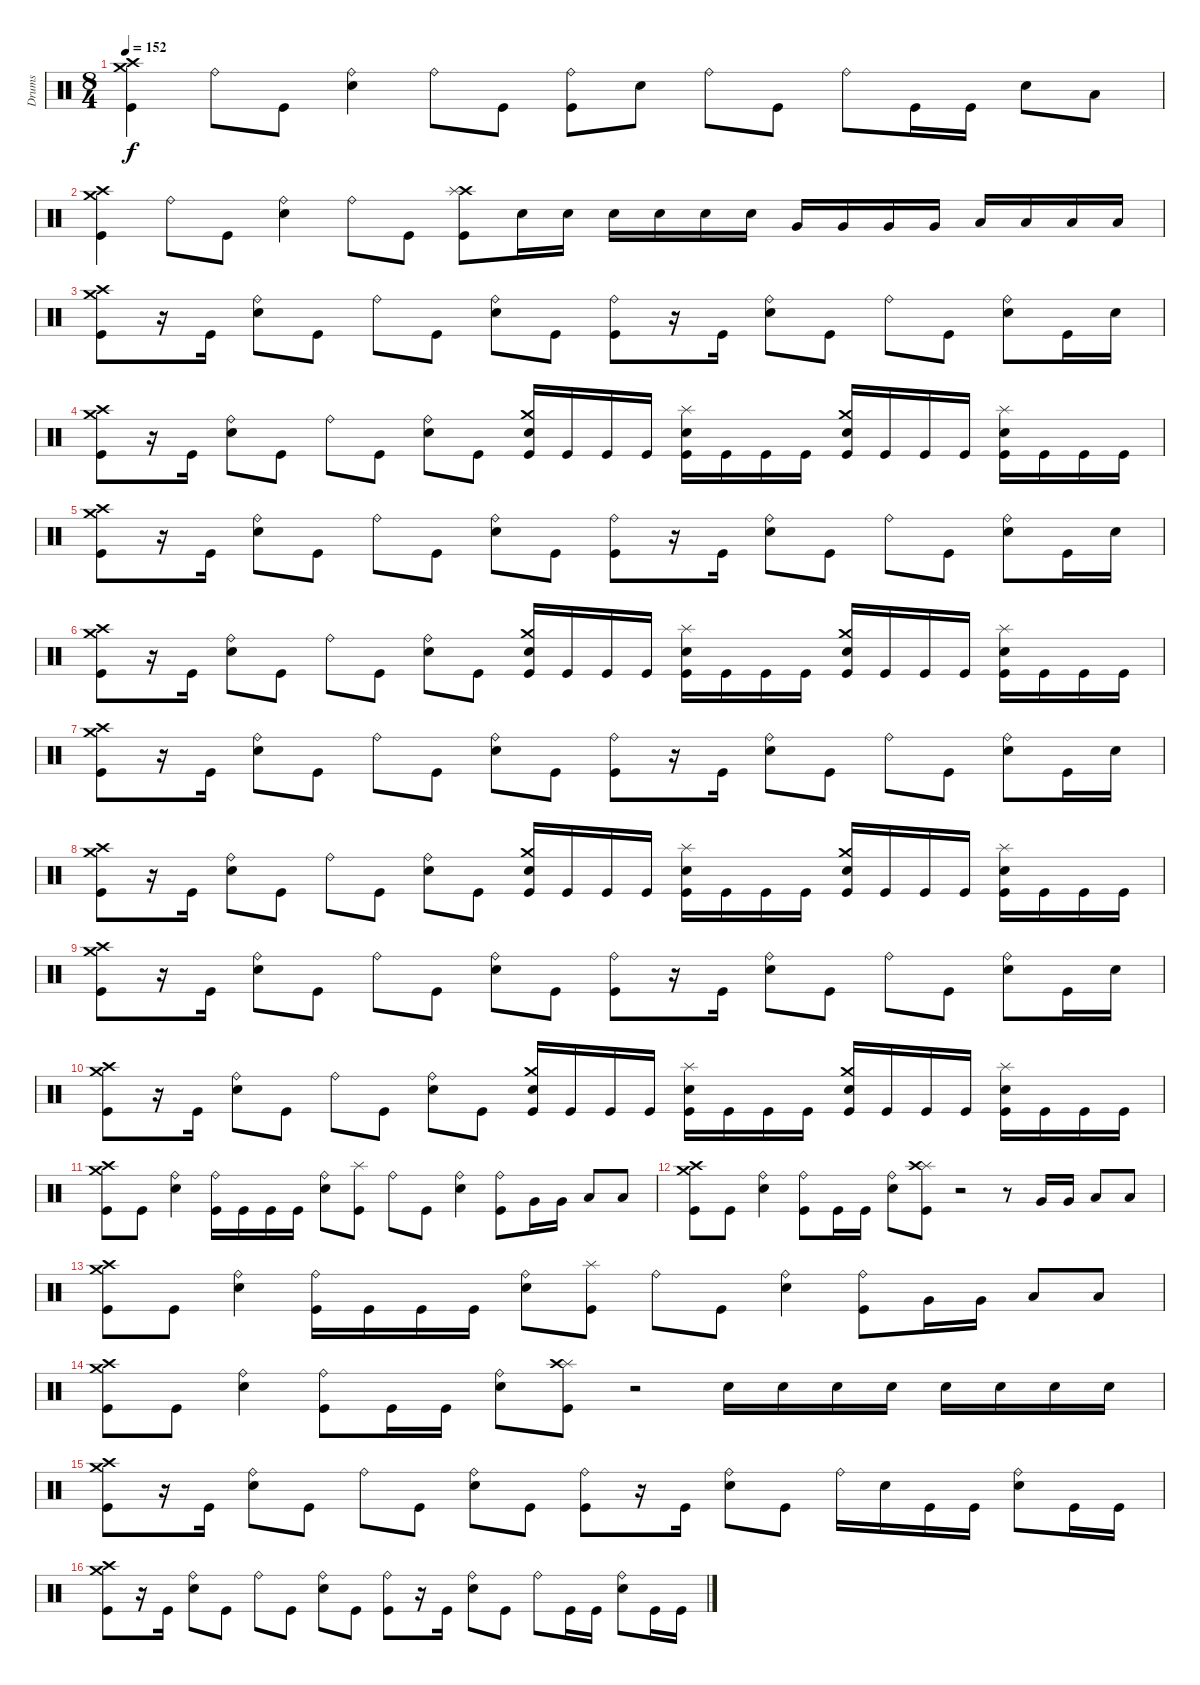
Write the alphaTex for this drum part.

\track ("Drums" "Drums") {instrument percussion}
\staff {score}
\articulation defaults
\ts (8 4)
\tempo 152
\clef neutral
\ks c
("Kick (hit)" "Crash high (hit)" "Crash medium (hit)").4{dy f} "Ride (bell)".8 "Kick (hit)".8 ("Electric Snare (hit)" "Ride (bell)").4 "Ride (bell)".8 "Kick (hit)".8 ("Kick (hit)" "Ride (bell)").8 "Electric Snare (hit)".8 "Ride (bell)".8 "Kick (hit)".8 "Ride (bell)".8 "Kick (hit)".16 "Kick (hit)".16 "Electric Snare (hit)".8 "Low Floor Tom (hit)".8 |
("Kick (hit)" "Crash high (hit)" "Crash medium (hit)").4 "Ride (bell)".8 "Kick (hit)".8 ("Electric Snare (hit)" "Ride (bell)").4 "Ride (bell)".8 "Kick (hit)".8 ("Kick (hit)" "Crash high (hit)" "Splash (hit)").8 "Electric Snare (hit)".16 "Electric Snare (hit)".16 "Electric Snare (hit)".16 "Electric Snare (hit)".16 "Electric Snare (hit)".16 "Electric Snare (hit)".16 "Very Low Tom (hit)".16 "Very Low Tom (hit)".16 "Very Low Tom (hit)".16 "Very Low Tom (hit)".16 "Low Floor Tom (hit)".16 "Low Floor Tom (hit)".16 "Low Floor Tom (hit)".16 "Low Floor Tom (hit)".16 |
("Kick (hit)" "Crash high (hit)" "Crash medium (hit)").8 r.16 "Kick (hit)".16 ("Electric Snare (hit)" "Ride (bell)").8 "Kick (hit)".8 "Ride (bell)".8 "Kick (hit)".8 ("Electric Snare (hit)" "Ride (bell)").8 "Kick (hit)".8 ("Kick (hit)" "Ride (bell)").8 r.16 "Kick (hit)".16 ("Electric Snare (hit)" "Ride (bell)").8 "Kick (hit)".8 "Ride (bell)".8 "Kick (hit)".8 ("Electric Snare (hit)" "Ride (bell)").8 "Kick (hit)".16 "Electric Snare (hit)".16 |
("Kick (hit)" "Crash high (hit)" "Crash medium (hit)").8 r.16 "Kick (hit)".16 ("Electric Snare (hit)" "Ride (bell)").8 "Kick (hit)".8 "Ride (bell)".8 "Kick (hit)".8 ("Electric Snare (hit)" "Ride (bell)").8 "Kick (hit)".8 ("Kick (hit)" "Crash medium (hit)" "Electric Snare (hit)").16 "Kick (hit)".16 "Kick (hit)".16 "Kick (hit)".16 ("Kick (hit)" "Splash (hit)" "Electric Snare (hit)").16 "Kick (hit)".16 "Kick (hit)".16 "Kick (hit)".16 ("Kick (hit)" "Crash medium (hit)" "Electric Snare (hit)").16 "Kick (hit)".16 "Kick (hit)".16 "Kick (hit)".16 ("Kick (hit)" "Splash (hit)" "Electric Snare (hit)").16 "Kick (hit)".16 "Kick (hit)".16 "Kick (hit)".16 |
("Kick (hit)" "Crash high (hit)" "Crash medium (hit)").8 r.16 "Kick (hit)".16 ("Electric Snare (hit)" "Ride (bell)").8 "Kick (hit)".8 "Ride (bell)".8 "Kick (hit)".8 ("Electric Snare (hit)" "Ride (bell)").8 "Kick (hit)".8 ("Kick (hit)" "Ride (bell)").8 r.16 "Kick (hit)".16 ("Electric Snare (hit)" "Ride (bell)").8 "Kick (hit)".8 "Ride (bell)".8 "Kick (hit)".8 ("Electric Snare (hit)" "Ride (bell)").8 "Kick (hit)".16 "Electric Snare (hit)".16 |
("Kick (hit)" "Crash high (hit)" "Crash medium (hit)").8 r.16 "Kick (hit)".16 ("Electric Snare (hit)" "Ride (bell)").8 "Kick (hit)".8 "Ride (bell)".8 "Kick (hit)".8 ("Electric Snare (hit)" "Ride (bell)").8 "Kick (hit)".8 ("Kick (hit)" "Crash medium (hit)" "Electric Snare (hit)").16 "Kick (hit)".16 "Kick (hit)".16 "Kick (hit)".16 ("Kick (hit)" "Splash (hit)" "Electric Snare (hit)").16 "Kick (hit)".16 "Kick (hit)".16 "Kick (hit)".16 ("Kick (hit)" "Crash medium (hit)" "Electric Snare (hit)").16 "Kick (hit)".16 "Kick (hit)".16 "Kick (hit)".16 ("Kick (hit)" "Splash (hit)" "Electric Snare (hit)").16 "Kick (hit)".16 "Kick (hit)".16 "Kick (hit)".16 |
("Kick (hit)" "Crash high (hit)" "Crash medium (hit)").8 r.16 "Kick (hit)".16 ("Electric Snare (hit)" "Ride (bell)").8 "Kick (hit)".8 "Ride (bell)".8 "Kick (hit)".8 ("Electric Snare (hit)" "Ride (bell)").8 "Kick (hit)".8 ("Kick (hit)" "Ride (bell)").8 r.16 "Kick (hit)".16 ("Electric Snare (hit)" "Ride (bell)").8 "Kick (hit)".8 "Ride (bell)".8 "Kick (hit)".8 ("Electric Snare (hit)" "Ride (bell)").8 "Kick (hit)".16 "Electric Snare (hit)".16 |
("Kick (hit)" "Crash high (hit)" "Crash medium (hit)").8 r.16 "Kick (hit)".16 ("Electric Snare (hit)" "Ride (bell)").8 "Kick (hit)".8 "Ride (bell)".8 "Kick (hit)".8 ("Electric Snare (hit)" "Ride (bell)").8 "Kick (hit)".8 ("Kick (hit)" "Crash medium (hit)" "Electric Snare (hit)").16 "Kick (hit)".16 "Kick (hit)".16 "Kick (hit)".16 ("Kick (hit)" "Splash (hit)" "Electric Snare (hit)").16 "Kick (hit)".16 "Kick (hit)".16 "Kick (hit)".16 ("Kick (hit)" "Crash medium (hit)" "Electric Snare (hit)").16 "Kick (hit)".16 "Kick (hit)".16 "Kick (hit)".16 ("Kick (hit)" "Splash (hit)" "Electric Snare (hit)").16 "Kick (hit)".16 "Kick (hit)".16 "Kick (hit)".16 |
("Kick (hit)" "Crash high (hit)" "Crash medium (hit)").8 r.16 "Kick (hit)".16 ("Electric Snare (hit)" "Ride (bell)").8 "Kick (hit)".8 "Ride (bell)".8 "Kick (hit)".8 ("Electric Snare (hit)" "Ride (bell)").8 "Kick (hit)".8 ("Kick (hit)" "Ride (bell)").8 r.16 "Kick (hit)".16 ("Electric Snare (hit)" "Ride (bell)").8 "Kick (hit)".8 "Ride (bell)".8 "Kick (hit)".8 ("Electric Snare (hit)" "Ride (bell)").8 "Kick (hit)".16 "Electric Snare (hit)".16 |
("Kick (hit)" "Crash high (hit)" "Crash medium (hit)").8 r.16 "Kick (hit)".16 ("Electric Snare (hit)" "Ride (bell)").8 "Kick (hit)".8 "Ride (bell)".8 "Kick (hit)".8 ("Electric Snare (hit)" "Ride (bell)").8 "Kick (hit)".8 ("Kick (hit)" "Crash medium (hit)" "Electric Snare (hit)").16 "Kick (hit)".16 "Kick (hit)".16 "Kick (hit)".16 ("Kick (hit)" "Splash (hit)" "Electric Snare (hit)").16 "Kick (hit)".16 "Kick (hit)".16 "Kick (hit)".16 ("Kick (hit)" "Crash medium (hit)" "Electric Snare (hit)").16 "Kick (hit)".16 "Kick (hit)".16 "Kick (hit)".16 ("Kick (hit)" "Splash (hit)" "Electric Snare (hit)").16 "Kick (hit)".16 "Kick (hit)".16 "Kick (hit)".16 |
("Kick (hit)" "Crash high (hit)" "Crash medium (hit)").8 "Kick (hit)".8 ("Electric Snare (hit)" "Ride (bell)").4 ("Kick (hit)" "Ride (bell)").16 "Kick (hit)".16 "Kick (hit)".16 "Kick (hit)".16 ("Electric Snare (hit)" "Ride (bell)").8 ("Kick (hit)" "Splash (hit)").8 "Ride (bell)".8 "Kick (hit)".8 ("Electric Snare (hit)" "Ride (bell)").4 ("Kick (hit)" "Ride (bell)").8 "Very Low Tom (hit)".16 "Very Low Tom (hit)".16 "Low Floor Tom (hit)".8 "Low Floor Tom (hit)".8 |
("Kick (hit)" "Crash medium (hit)" "Crash high (hit)").8 "Kick (hit)".8 ("Electric Snare (hit)" "Ride (bell)").4 ("Kick (hit)" "Ride (bell)").8 "Kick (hit)".16 "Kick (hit)".16 ("Electric Snare (hit)" "Ride (bell)").8 ("Kick (hit)" "Splash (hit)" "Crash high (hit)").8 r.2 r.8 "Very Low Tom (hit)".16 "Very Low Tom (hit)".16 "Low Floor Tom (hit)".8 "Low Floor Tom (hit)".8 |
("Kick (hit)" "Crash high (hit)" "Crash medium (hit)").8 "Kick (hit)".8 ("Electric Snare (hit)" "Ride (bell)").4 ("Kick (hit)" "Ride (bell)").16 "Kick (hit)".16 "Kick (hit)".16 "Kick (hit)".16 ("Electric Snare (hit)" "Ride (bell)").8 ("Kick (hit)" "Splash (hit)").8 "Ride (bell)".8 "Kick (hit)".8 ("Electric Snare (hit)" "Ride (bell)").4 ("Kick (hit)" "Ride (bell)").8 "Very Low Tom (hit)".16 "Very Low Tom (hit)".16 "Low Floor Tom (hit)".8 "Low Floor Tom (hit)".8 |
("Kick (hit)" "Crash medium (hit)" "Crash high (hit)").8 "Kick (hit)".8 ("Electric Snare (hit)" "Ride (bell)").4 ("Kick (hit)" "Ride (bell)").8 "Kick (hit)".16 "Kick (hit)".16 ("Electric Snare (hit)" "Ride (bell)").8 ("Kick (hit)" "Splash (hit)" "Crash high (hit)").8 r.2 "Electric Snare (hit)".16 "Electric Snare (hit)".16 "Electric Snare (hit)".16 "Electric Snare (hit)".16 "Electric Snare (hit)".16 "Electric Snare (hit)".16 "Electric Snare (hit)".16 "Electric Snare (hit)".16 |
("Kick (hit)" "Crash high (hit)" "Crash medium (hit)").8 r.16 "Kick (hit)".16 ("Electric Snare (hit)" "Ride (bell)").8 "Kick (hit)".8 "Ride (bell)".8 "Kick (hit)".8 ("Electric Snare (hit)" "Ride (bell)").8 "Kick (hit)".8 ("Kick (hit)" "Ride (bell)").8 r.16 "Kick (hit)".16 ("Electric Snare (hit)" "Ride (bell)").8 "Kick (hit)".8 "Ride (bell)".16 "Electric Snare (hit)".16 "Kick (hit)".16 "Kick (hit)".16 ("Electric Snare (hit)" "Ride (bell)").8 "Kick (hit)".16 "Kick (hit)".16 |
("Kick (hit)" "Crash high (hit)" "Crash medium (hit)").8 r.16 "Kick (hit)".16 ("Electric Snare (hit)" "Ride (bell)").8 "Kick (hit)".8 "Ride (bell)".8 "Kick (hit)".8 ("Electric Snare (hit)" "Ride (bell)").8 "Kick (hit)".8 ("Kick (hit)" "Ride (bell)").8 r.16 "Kick (hit)".16 ("Electric Snare (hit)" "Ride (bell)").8 "Kick (hit)".8 "Ride (bell)".8 "Kick (hit)".16 "Kick (hit)".16 ("Electric Snare (hit)" "Ride (bell)").8 "Kick (hit)".16 "Kick (hit)".16
